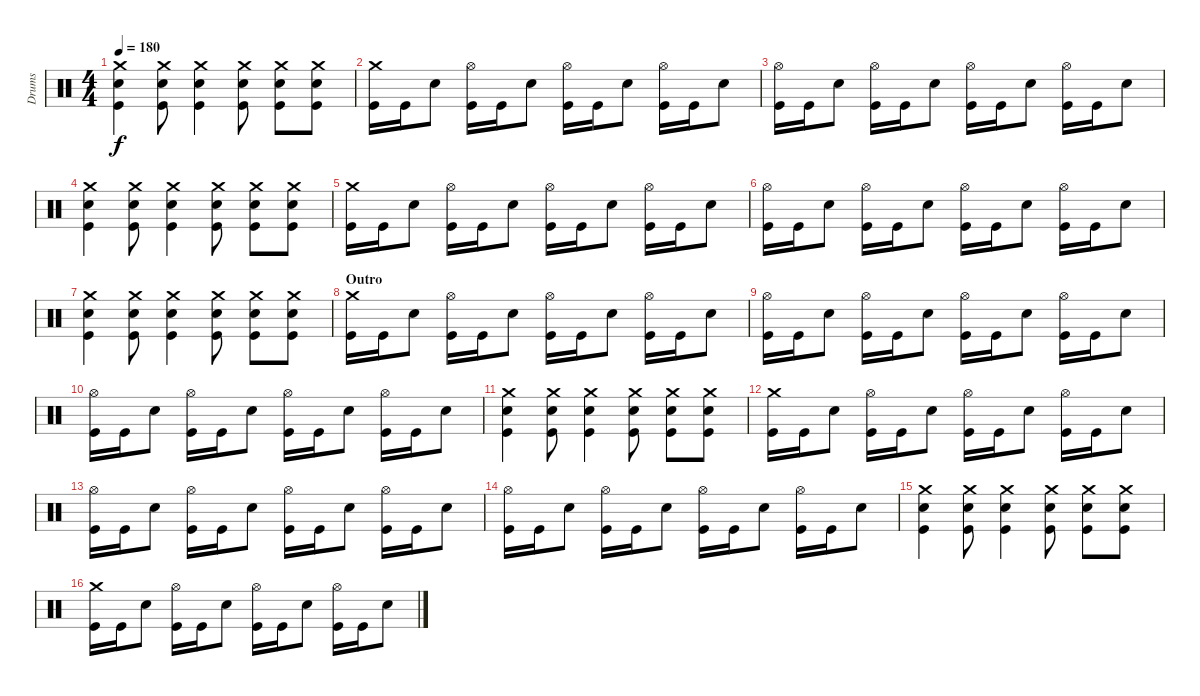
\track ("Drums" "Drums") {instrument percussion}
\staff {score}
\articulation defaults
\ts (4 4)
\tempo 180
\clef neutral
\ks c
("Crash medium (hit)" "Snare (hit) 2" "Kick (hit)").4{dy f} ("Crash medium (hit)" "Snare (hit) 2" "Kick (hit)").8 ("Crash medium (hit)" "Snare (hit) 2" "Kick (hit)").4 ("Crash medium (hit)" "Snare (hit) 2" "Kick (hit)").8 ("Crash medium (hit)" "Snare (hit) 2" "Kick (hit)").8 ("Crash medium (hit)" "Snare (hit) 2" "Kick (hit)").8 |
("Crash medium (hit)" "Kick (hit)").16 "Kick (hit)".16 "Snare (hit) 2".8 ("Hi-Hat (open)" "Kick (hit)").16 "Kick (hit)".16 "Snare (hit) 2".8 ("Hi-Hat (open)" "Kick (hit)").16 "Kick (hit)".16 "Snare (hit) 2".8 ("Hi-Hat (open)" "Kick (hit)").16 "Kick (hit)".16 "Snare (hit) 2".8 |
("Hi-Hat (open)" "Kick (hit)").16 "Kick (hit)".16 "Snare (hit) 2".8 ("Hi-Hat (open)" "Kick (hit)").16 "Kick (hit)".16 "Snare (hit) 2".8 ("Hi-Hat (open)" "Kick (hit)").16 "Kick (hit)".16 "Snare (hit) 2".8 ("Hi-Hat (open)" "Kick (hit)").16 "Kick (hit)".16 "Snare (hit) 2".8 |
("Crash medium (hit)" "Snare (hit) 2" "Kick (hit)").4 ("Crash medium (hit)" "Snare (hit) 2" "Kick (hit)").8 ("Crash medium (hit)" "Snare (hit) 2" "Kick (hit)").4 ("Crash medium (hit)" "Snare (hit) 2" "Kick (hit)").8 ("Crash medium (hit)" "Snare (hit) 2" "Kick (hit)").8 ("Crash medium (hit)" "Snare (hit) 2" "Kick (hit)").8 |
("Crash medium (hit)" "Kick (hit)").16 "Kick (hit)".16 "Snare (hit) 2".8 ("Hi-Hat (open)" "Kick (hit)").16 "Kick (hit)".16 "Snare (hit) 2".8 ("Hi-Hat (open)" "Kick (hit)").16 "Kick (hit)".16 "Snare (hit) 2".8 ("Hi-Hat (open)" "Kick (hit)").16 "Kick (hit)".16 "Snare (hit) 2".8 |
("Hi-Hat (open)" "Kick (hit)").16 "Kick (hit)".16 "Snare (hit) 2".8 ("Hi-Hat (open)" "Kick (hit)").16 "Kick (hit)".16 "Snare (hit) 2".8 ("Hi-Hat (open)" "Kick (hit)").16 "Kick (hit)".16 "Snare (hit) 2".8 ("Hi-Hat (open)" "Kick (hit)").16 "Kick (hit)".16 "Snare (hit) 2".8 |
("Crash medium (hit)" "Snare (hit) 2" "Kick (hit)").4 ("Crash medium (hit)" "Snare (hit) 2" "Kick (hit)").8 ("Crash medium (hit)" "Snare (hit) 2" "Kick (hit)").4 ("Crash medium (hit)" "Snare (hit) 2" "Kick (hit)").8 ("Crash medium (hit)" "Snare (hit) 2" "Kick (hit)").8 ("Crash medium (hit)" "Snare (hit) 2" "Kick (hit)").8 |
\section ("" "Outro")
("Crash medium (hit)" "Kick (hit)").16 "Kick (hit)".16 "Snare (hit) 2".8 ("Hi-Hat (open)" "Kick (hit)").16 "Kick (hit)".16 "Snare (hit) 2".8 ("Hi-Hat (open)" "Kick (hit)").16 "Kick (hit)".16 "Snare (hit) 2".8 ("Hi-Hat (open)" "Kick (hit)").16 "Kick (hit)".16 "Snare (hit) 2".8 |
("Hi-Hat (open)" "Kick (hit)").16 "Kick (hit)".16 "Snare (hit) 2".8 ("Hi-Hat (open)" "Kick (hit)").16 "Kick (hit)".16 "Snare (hit) 2".8 ("Hi-Hat (open)" "Kick (hit)").16 "Kick (hit)".16 "Snare (hit) 2".8 ("Hi-Hat (open)" "Kick (hit)").16 "Kick (hit)".16 "Snare (hit) 2".8 |
("Hi-Hat (open)" "Kick (hit)").16 "Kick (hit)".16 "Snare (hit) 2".8 ("Hi-Hat (open)" "Kick (hit)").16 "Kick (hit)".16 "Snare (hit) 2".8 ("Hi-Hat (open)" "Kick (hit)").16 "Kick (hit)".16 "Snare (hit) 2".8 ("Hi-Hat (open)" "Kick (hit)").16 "Kick (hit)".16 "Snare (hit) 2".8 |
("Crash medium (hit)" "Snare (hit) 2" "Kick (hit)").4 ("Crash medium (hit)" "Snare (hit) 2" "Kick (hit)").8 ("Crash medium (hit)" "Snare (hit) 2" "Kick (hit)").4 ("Crash medium (hit)" "Snare (hit) 2" "Kick (hit)").8 ("Crash medium (hit)" "Snare (hit) 2" "Kick (hit)").8 ("Crash medium (hit)" "Snare (hit) 2" "Kick (hit)").8 |
("Crash medium (hit)" "Kick (hit)").16 "Kick (hit)".16 "Snare (hit) 2".8 ("Hi-Hat (open)" "Kick (hit)").16 "Kick (hit)".16 "Snare (hit) 2".8 ("Hi-Hat (open)" "Kick (hit)").16 "Kick (hit)".16 "Snare (hit) 2".8 ("Hi-Hat (open)" "Kick (hit)").16 "Kick (hit)".16 "Snare (hit) 2".8 |
("Hi-Hat (open)" "Kick (hit)").16 "Kick (hit)".16 "Snare (hit) 2".8 ("Hi-Hat (open)" "Kick (hit)").16 "Kick (hit)".16 "Snare (hit) 2".8 ("Hi-Hat (open)" "Kick (hit)").16 "Kick (hit)".16 "Snare (hit) 2".8 ("Hi-Hat (open)" "Kick (hit)").16 "Kick (hit)".16 "Snare (hit) 2".8 |
("Hi-Hat (open)" "Kick (hit)").16 "Kick (hit)".16 "Snare (hit) 2".8 ("Hi-Hat (open)" "Kick (hit)").16 "Kick (hit)".16 "Snare (hit) 2".8 ("Hi-Hat (open)" "Kick (hit)").16 "Kick (hit)".16 "Snare (hit) 2".8 ("Hi-Hat (open)" "Kick (hit)").16 "Kick (hit)".16 "Snare (hit) 2".8 |
("Crash medium (hit)" "Snare (hit) 2" "Kick (hit)").4 ("Crash medium (hit)" "Snare (hit) 2" "Kick (hit)").8 ("Crash medium (hit)" "Snare (hit) 2" "Kick (hit)").4 ("Crash medium (hit)" "Snare (hit) 2" "Kick (hit)").8 ("Crash medium (hit)" "Snare (hit) 2" "Kick (hit)").8 ("Crash medium (hit)" "Snare (hit) 2" "Kick (hit)").8 |
("Crash medium (hit)" "Kick (hit)").16 "Kick (hit)".16 "Snare (hit) 2".8 ("Hi-Hat (open)" "Kick (hit)").16 "Kick (hit)".16 "Snare (hit) 2".8 ("Hi-Hat (open)" "Kick (hit)").16 "Kick (hit)".16 "Snare (hit) 2".8 ("Hi-Hat (open)" "Kick (hit)").16 "Kick (hit)".16 "Snare (hit) 2".8
